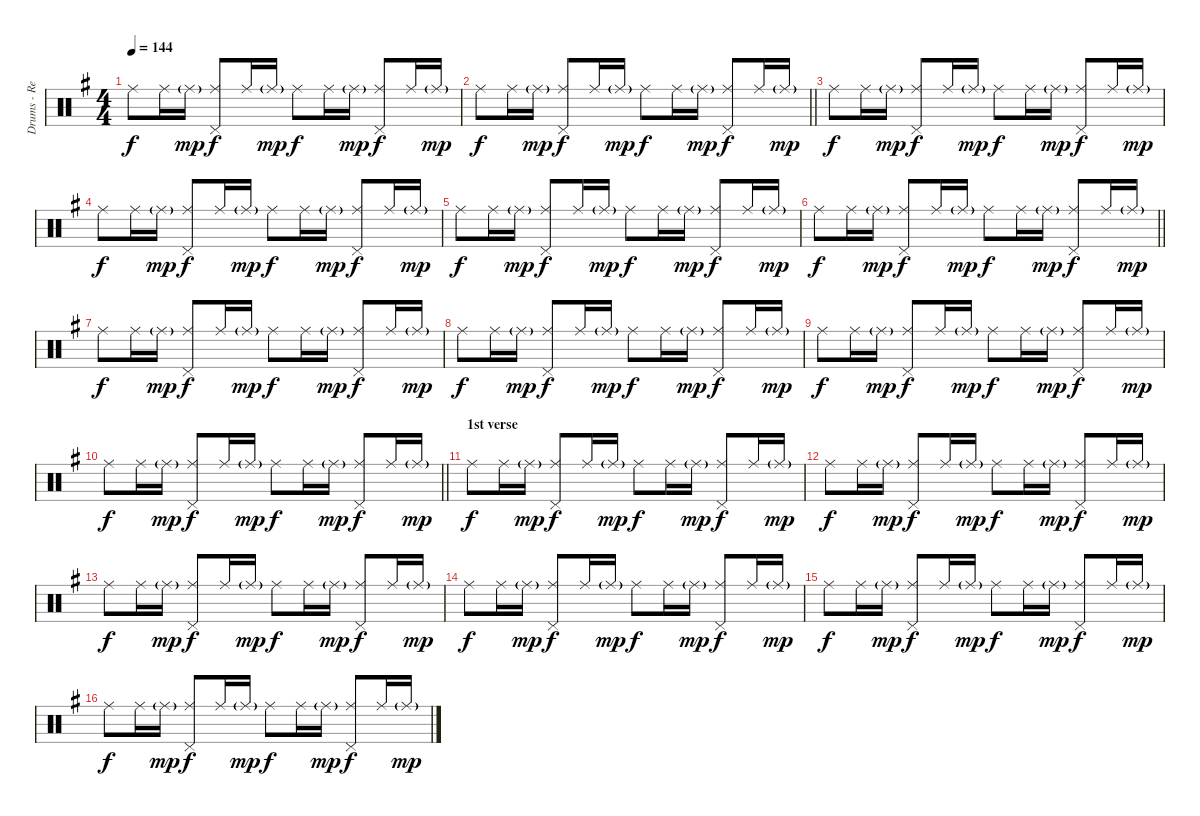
\track ("Drums - Reni" "Drums - Re") {instrument percussion}
\staff {score}
\articulation defaults
\ts (4 4)
\tempo 144
\clef neutral
\ks g "Ride (middle)".8{dy f} "Ride (middle)".16 "Ride (middle)"{g}.16{dy mp}
("Ride (middle)" "Pedal Hi-Hat (hit)").8{dy f} "Ride (middle)".16 "Ride (middle)"{g}.16{dy mp} "Ride (middle)".8{dy f} "Ride (middle)".16 "Ride (middle)"{g}.16{dy mp} ("Ride (middle)" "Pedal Hi-Hat (hit)").8{dy f} "Ride (middle)".16 "Ride (middle)"{g}.16{dy mp} |
\barLineRight lightlight "Ride (middle)".8{dy f} "Ride (middle)".16 "Ride (middle)"{g}.16{dy mp}
("Ride (middle)" "Pedal Hi-Hat (hit)").8{dy f} "Ride (middle)".16 "Ride (middle)"{g}.16{dy mp} "Ride (middle)".8{dy f} "Ride (middle)".16 "Ride (middle)"{g}.16{dy mp} ("Ride (middle)" "Pedal Hi-Hat (hit)").8{dy f} "Ride (middle)".16 "Ride (middle)"{g}.16{dy mp} |
"Ride (middle)".8{dy f} "Ride (middle)".16 "Ride (middle)"{g}.16{dy mp} ("Ride (middle)" "Pedal Hi-Hat (hit)").8{dy f} "Ride (middle)".16 "Ride (middle)"{g}.16{dy mp} "Ride (middle)".8{dy f} "Ride (middle)".16 "Ride (middle)"{g}.16{dy mp} ("Ride (middle)" "Pedal Hi-Hat (hit)").8{dy f} "Ride (middle)".16 "Ride (middle)"{g}.16{dy mp} |
"Ride (middle)".8{dy f} "Ride (middle)".16 "Ride (middle)"{g}.16{dy mp} ("Ride (middle)" "Pedal Hi-Hat (hit)").8{dy f} "Ride (middle)".16 "Ride (middle)"{g}.16{dy mp} "Ride (middle)".8{dy f} "Ride (middle)".16 "Ride (middle)"{g}.16{dy mp} ("Ride (middle)" "Pedal Hi-Hat (hit)").8{dy f} "Ride (middle)".16 "Ride (middle)"{g}.16{dy mp} |
"Ride (middle)".8{dy f} "Ride (middle)".16 "Ride (middle)"{g}.16{dy mp} ("Ride (middle)" "Pedal Hi-Hat (hit)").8{dy f} "Ride (middle)".16 "Ride (middle)"{g}.16{dy mp} "Ride (middle)".8{dy f} "Ride (middle)".16 "Ride (middle)"{g}.16{dy mp} ("Ride (middle)" "Pedal Hi-Hat (hit)").8{dy f} "Ride (middle)".16 "Ride (middle)"{g}.16{dy mp} |
\barLineRight lightlight "Ride (middle)".8{dy f} "Ride (middle)".16 "Ride (middle)"{g}.16{dy mp}
("Ride (middle)" "Pedal Hi-Hat (hit)").8{dy f} "Ride (middle)".16 "Ride (middle)"{g}.16{dy mp} "Ride (middle)".8{dy f} "Ride (middle)".16 "Ride (middle)"{g}.16{dy mp} ("Ride (middle)" "Pedal Hi-Hat (hit)").8{dy f} "Ride (middle)".16 "Ride (middle)"{g}.16{dy mp} |
"Ride (middle)".8{dy f} "Ride (middle)".16 "Ride (middle)"{g}.16{dy mp} ("Ride (middle)" "Pedal Hi-Hat (hit)").8{dy f} "Ride (middle)".16 "Ride (middle)"{g}.16{dy mp} "Ride (middle)".8{dy f} "Ride (middle)".16 "Ride (middle)"{g}.16{dy mp} ("Ride (middle)" "Pedal Hi-Hat (hit)").8{dy f} "Ride (middle)".16 "Ride (middle)"{g}.16{dy mp} |
"Ride (middle)".8{dy f} "Ride (middle)".16 "Ride (middle)"{g}.16{dy mp} ("Ride (middle)" "Pedal Hi-Hat (hit)").8{dy f} "Ride (middle)".16 "Ride (middle)"{g}.16{dy mp} "Ride (middle)".8{dy f} "Ride (middle)".16 "Ride (middle)"{g}.16{dy mp} ("Ride (middle)" "Pedal Hi-Hat (hit)").8{dy f} "Ride (middle)".16 "Ride (middle)"{g}.16{dy mp} |
"Ride (middle)".8{dy f} "Ride (middle)".16 "Ride (middle)"{g}.16{dy mp} ("Ride (middle)" "Pedal Hi-Hat (hit)").8{dy f} "Ride (middle)".16 "Ride (middle)"{g}.16{dy mp} "Ride (middle)".8{dy f} "Ride (middle)".16 "Ride (middle)"{g}.16{dy mp} ("Ride (middle)" "Pedal Hi-Hat (hit)").8{dy f} "Ride (middle)".16 "Ride (middle)"{g}.16{dy mp} |
\barLineRight lightlight "Ride (middle)".8{dy f} "Ride (middle)".16 "Ride (middle)"{g}.16{dy mp}
("Ride (middle)" "Pedal Hi-Hat (hit)").8{dy f} "Ride (middle)".16 "Ride (middle)"{g}.16{dy mp} "Ride (middle)".8{dy f} "Ride (middle)".16 "Ride (middle)"{g}.16{dy mp} ("Ride (middle)" "Pedal Hi-Hat (hit)").8{dy f} "Ride (middle)".16 "Ride (middle)"{g}.16{dy mp} |
\section ("" "1st verse")
"Ride (middle)".8{dy f} "Ride (middle)".16 "Ride (middle)"{g}.16{dy mp} ("Ride (middle)" "Pedal Hi-Hat (hit)").8{dy f} "Ride (middle)".16 "Ride (middle)"{g}.16{dy mp} "Ride (middle)".8{dy f} "Ride (middle)".16 "Ride (middle)"{g}.16{dy mp} ("Ride (middle)" "Pedal Hi-Hat (hit)").8{dy f} "Ride (middle)".16 "Ride (middle)"{g}.16{dy mp} |
"Ride (middle)".8{dy f} "Ride (middle)".16 "Ride (middle)"{g}.16{dy mp} ("Ride (middle)" "Pedal Hi-Hat (hit)").8{dy f} "Ride (middle)".16 "Ride (middle)"{g}.16{dy mp} "Ride (middle)".8{dy f} "Ride (middle)".16 "Ride (middle)"{g}.16{dy mp} ("Ride (middle)" "Pedal Hi-Hat (hit)").8{dy f} "Ride (middle)".16 "Ride (middle)"{g}.16{dy mp} |
"Ride (middle)".8{dy f} "Ride (middle)".16 "Ride (middle)"{g}.16{dy mp} ("Ride (middle)" "Pedal Hi-Hat (hit)").8{dy f} "Ride (middle)".16 "Ride (middle)"{g}.16{dy mp} "Ride (middle)".8{dy f} "Ride (middle)".16 "Ride (middle)"{g}.16{dy mp} ("Ride (middle)" "Pedal Hi-Hat (hit)").8{dy f} "Ride (middle)".16 "Ride (middle)"{g}.16{dy mp} |
"Ride (middle)".8{dy f} "Ride (middle)".16 "Ride (middle)"{g}.16{dy mp} ("Ride (middle)" "Pedal Hi-Hat (hit)").8{dy f} "Ride (middle)".16 "Ride (middle)"{g}.16{dy mp} "Ride (middle)".8{dy f} "Ride (middle)".16 "Ride (middle)"{g}.16{dy mp} ("Ride (middle)" "Pedal Hi-Hat (hit)").8{dy f} "Ride (middle)".16 "Ride (middle)"{g}.16{dy mp} |
"Ride (middle)".8{dy f} "Ride (middle)".16 "Ride (middle)"{g}.16{dy mp} ("Ride (middle)" "Pedal Hi-Hat (hit)").8{dy f} "Ride (middle)".16 "Ride (middle)"{g}.16{dy mp} "Ride (middle)".8{dy f} "Ride (middle)".16 "Ride (middle)"{g}.16{dy mp} ("Ride (middle)" "Pedal Hi-Hat (hit)").8{dy f} "Ride (middle)".16 "Ride (middle)"{g}.16{dy mp} |
"Ride (middle)".8{dy f} "Ride (middle)".16 "Ride (middle)"{g}.16{dy mp} ("Ride (middle)" "Pedal Hi-Hat (hit)").8{dy f} "Ride (middle)".16 "Ride (middle)"{g}.16{dy mp} "Ride (middle)".8{dy f} "Ride (middle)".16 "Ride (middle)"{g}.16{dy mp} ("Ride (middle)" "Pedal Hi-Hat (hit)").8{dy f} "Ride (middle)".16 "Ride (middle)"{g}.16{dy mp}
